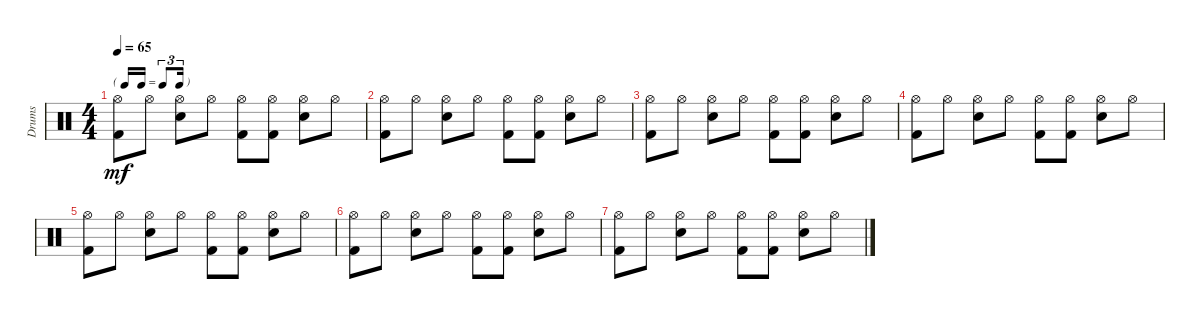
\track ("Drums" "Drums") {instrument percussion}
\staff {score}
\articulation defaults
\ts (4 4)
\tf triplet16th
\tempo 65
\clef neutral
\ks c
("Hi-Hat (open)" "Kick (hit) 2").8{dy mf} "Hi-Hat (open)".8 ("Hi-Hat (open)" "Snare (hit) 2").8 "Hi-Hat (open)".8 ("Hi-Hat (open)" "Kick (hit) 2").8 ("Hi-Hat (open)" "Kick (hit) 2").8 ("Hi-Hat (open)" "Snare (hit) 2").8 "Hi-Hat (open)".8 |
("Hi-Hat (open)" "Kick (hit) 2").8 "Hi-Hat (open)".8 ("Hi-Hat (open)" "Snare (hit) 2").8 "Hi-Hat (open)".8 ("Hi-Hat (open)" "Kick (hit) 2").8 ("Hi-Hat (open)" "Kick (hit) 2").8 ("Hi-Hat (open)" "Snare (hit) 2").8 "Hi-Hat (open)".8 |
("Hi-Hat (open)" "Kick (hit) 2").8 "Hi-Hat (open)".8 ("Hi-Hat (open)" "Snare (hit) 2").8 "Hi-Hat (open)".8 ("Hi-Hat (open)" "Kick (hit) 2").8 ("Hi-Hat (open)" "Kick (hit) 2").8 ("Hi-Hat (open)" "Snare (hit) 2").8 "Hi-Hat (open)".8 |
("Hi-Hat (open)" "Kick (hit) 2").8 "Hi-Hat (open)".8 ("Hi-Hat (open)" "Snare (hit) 2").8 "Hi-Hat (open)".8 ("Hi-Hat (open)" "Kick (hit) 2").8 ("Hi-Hat (open)" "Kick (hit) 2").8 ("Hi-Hat (open)" "Snare (hit) 2").8 "Hi-Hat (open)".8 |
("Hi-Hat (open)" "Kick (hit) 2").8 "Hi-Hat (open)".8 ("Hi-Hat (open)" "Snare (hit) 2").8 "Hi-Hat (open)".8 ("Hi-Hat (open)" "Kick (hit) 2").8 ("Hi-Hat (open)" "Kick (hit) 2").8 ("Hi-Hat (open)" "Snare (hit) 2").8 "Hi-Hat (open)".8 |
("Hi-Hat (open)" "Kick (hit) 2").8 "Hi-Hat (open)".8 ("Hi-Hat (open)" "Snare (hit) 2").8 "Hi-Hat (open)".8 ("Hi-Hat (open)" "Kick (hit) 2").8 ("Hi-Hat (open)" "Kick (hit) 2").8 ("Hi-Hat (open)" "Snare (hit) 2").8 "Hi-Hat (open)".8 |
("Hi-Hat (open)" "Kick (hit) 2").8 "Hi-Hat (open)".8 ("Hi-Hat (open)" "Snare (hit) 2").8 "Hi-Hat (open)".8 ("Hi-Hat (open)" "Kick (hit) 2").8 ("Hi-Hat (open)" "Kick (hit) 2").8 ("Hi-Hat (open)" "Snare (hit) 2").8 "Hi-Hat (open)".8
